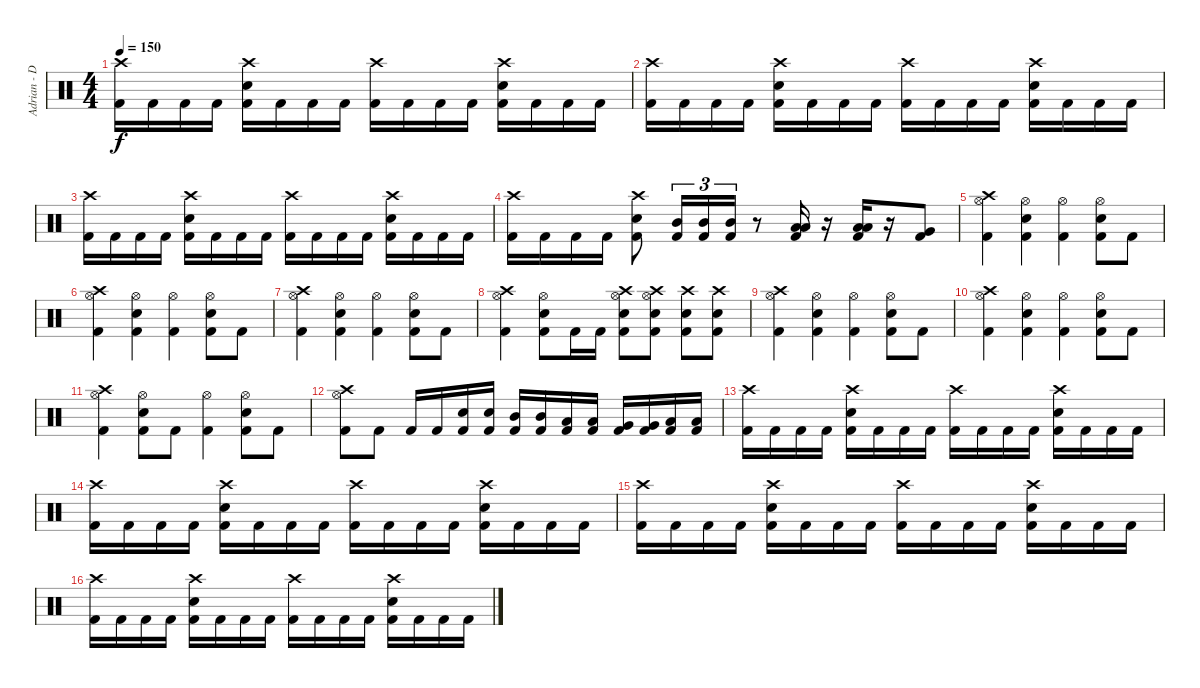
\track ("Adrian - Drums" "Adrian - D") {instrument percussion}
\staff {score}
\articulation defaults
\ts (4 4)
\tempo 150
\clef neutral
\ks c
("Crash high (hit)" "Kick (hit) 2").16{dy f} "Kick (hit) 2".16 "Kick (hit) 2".16 "Kick (hit) 2".16 ("Crash high (hit)" "Electric Snare (hit)" "Kick (hit) 2").16 "Kick (hit) 2".16 "Kick (hit) 2".16 "Kick (hit) 2".16 ("Crash high (hit)" "Kick (hit) 2").16 "Kick (hit) 2".16 "Kick (hit) 2".16 "Kick (hit) 2".16 ("Crash high (hit)" "Electric Snare (hit)" "Kick (hit) 2").16 "Kick (hit) 2".16 "Kick (hit) 2".16 "Kick (hit) 2".16 |
("Crash high (hit)" "Kick (hit) 2").16 "Kick (hit) 2".16 "Kick (hit) 2".16 "Kick (hit) 2".16 ("Crash high (hit)" "Electric Snare (hit)" "Kick (hit) 2").16 "Kick (hit) 2".16 "Kick (hit) 2".16 "Kick (hit) 2".16 ("Crash high (hit)" "Kick (hit) 2").16 "Kick (hit) 2".16 "Kick (hit) 2".16 "Kick (hit) 2".16 ("Crash high (hit)" "Electric Snare (hit)" "Kick (hit) 2").16 "Kick (hit) 2".16 "Kick (hit) 2".16 "Kick (hit) 2".16 |
("Crash high (hit)" "Kick (hit) 2").16 "Kick (hit) 2".16 "Kick (hit) 2".16 "Kick (hit) 2".16 ("Crash high (hit)" "Electric Snare (hit)" "Kick (hit) 2").16 "Kick (hit) 2".16 "Kick (hit) 2".16 "Kick (hit) 2".16 ("Crash high (hit)" "Kick (hit) 2").16 "Kick (hit) 2".16 "Kick (hit) 2".16 "Kick (hit) 2".16 ("Crash high (hit)" "Electric Snare (hit)" "Kick (hit) 2").16 "Kick (hit) 2".16 "Kick (hit) 2".16 "Kick (hit) 2".16 |
("Crash high (hit)" "Kick (hit) 2").16 "Kick (hit) 2".16 "Kick (hit) 2".16 "Kick (hit) 2".16 ("Crash high (hit)" "Electric Snare (hit)" "Kick (hit) 2").8 ("Mid Tom (hit)" "Kick (hit) 2").16{tu (3 2)} ("Mid Tom (hit)" "Kick (hit) 2").16{tu (3 2)} ("Mid Tom (hit)" "Kick (hit) 2").16{tu (3 2)} r.8 ("Low Tom (hit)" "Low Tom (hit)" "Kick (hit) 2").16 r.16 ("Low Tom (hit)" "Low Tom (hit)" "Kick (hit) 2").16 r.16 ("Very Low Tom (hit)" "Kick (hit) 2").8 |
("Crash high (hit)" "Hi-Hat (open)" "Kick (hit) 2").4 ("Hi-Hat (open)" "Electric Snare (hit)" "Kick (hit) 2").4 ("Hi-Hat (open)" "Kick (hit) 2").4 ("Hi-Hat (open)" "Electric Snare (hit)" "Kick (hit) 2").8 "Kick (hit) 2".8 |
("Crash high (hit)" "Hi-Hat (open)" "Kick (hit) 2").4 ("Hi-Hat (open)" "Electric Snare (hit)" "Kick (hit) 2").4 ("Hi-Hat (open)" "Kick (hit) 2").4 ("Hi-Hat (open)" "Electric Snare (hit)" "Kick (hit) 2").8 "Kick (hit) 2".8 |
("Crash high (hit)" "Hi-Hat (open)" "Kick (hit) 2").4 ("Hi-Hat (open)" "Electric Snare (hit)" "Kick (hit) 2").4 ("Hi-Hat (open)" "Kick (hit) 2").4 ("Hi-Hat (open)" "Electric Snare (hit)" "Kick (hit) 2").8 "Kick (hit) 2".8 |
("Crash high (hit)" "Hi-Hat (open)" "Kick (hit) 2").4 ("Hi-Hat (open)" "Electric Snare (hit)" "Kick (hit) 2").8 "Kick (hit) 2".16 "Kick (hit) 2".16 ("Crash high (hit)" "Hi-Hat (open)" "Electric Snare (hit)" "Kick (hit) 2").8 ("Crash high (hit)" "Hi-Hat (open)" "Electric Snare (hit)" "Kick (hit) 2").8 ("Crash high (hit)" "Electric Snare (hit)" "Kick (hit) 2").8 ("Crash high (hit)" "Electric Snare (hit)" "Kick (hit) 2").8 |
("Crash high (hit)" "Hi-Hat (open)" "Kick (hit) 2").4 ("Hi-Hat (open)" "Electric Snare (hit)" "Kick (hit) 2").4 ("Hi-Hat (open)" "Kick (hit) 2").4 ("Hi-Hat (open)" "Electric Snare (hit)" "Kick (hit) 2").8 "Kick (hit) 2".8 |
("Crash high (hit)" "Hi-Hat (open)" "Kick (hit) 2").4 ("Hi-Hat (open)" "Electric Snare (hit)" "Kick (hit) 2").4 ("Hi-Hat (open)" "Kick (hit) 2").4 ("Hi-Hat (open)" "Electric Snare (hit)" "Kick (hit) 2").8 "Kick (hit) 2".8 |
("Crash high (hit)" "Hi-Hat (open)" "Kick (hit) 2").4 ("Hi-Hat (open)" "Electric Snare (hit)" "Kick (hit) 2").8 "Kick (hit) 2".8 ("Hi-Hat (open)" "Kick (hit) 2").4 ("Hi-Hat (open)" "Electric Snare (hit)" "Kick (hit) 2").8 "Kick (hit) 2".8 |
("Crash high (hit)" "Hi-Hat (open)" "Kick (hit) 2").8 "Kick (hit) 2".8 "Kick (hit) 2".16 "Kick (hit) 2".16 ("Electric Snare (hit)" "Kick (hit) 2").16 ("Electric Snare (hit)" "Kick (hit) 2").16 ("Mid Tom (hit)" "Kick (hit) 2").16 ("Mid Tom (hit)" "Kick (hit) 2").16 ("Low Tom (hit)" "Kick (hit) 2").16 ("Low Tom (hit)" "Kick (hit) 2").16 ("Very Low Tom (hit)" "Kick (hit) 2").16 ("Very Low Tom (hit)" "Kick (hit) 2").16 ("Low Floor Tom (hit)" "Kick (hit) 2").16 ("Low Floor Tom (hit)" "Kick (hit) 2").16 |
("Crash high (hit)" "Kick (hit) 2").16 "Kick (hit) 2".16 "Kick (hit) 2".16 "Kick (hit) 2".16 ("Crash high (hit)" "Electric Snare (hit)" "Kick (hit) 2").16 "Kick (hit) 2".16 "Kick (hit) 2".16 "Kick (hit) 2".16 ("Crash high (hit)" "Kick (hit) 2").16 "Kick (hit) 2".16 "Kick (hit) 2".16 "Kick (hit) 2".16 ("Crash high (hit)" "Electric Snare (hit)" "Kick (hit) 2").16 "Kick (hit) 2".16 "Kick (hit) 2".16 "Kick (hit) 2".16 |
("Crash high (hit)" "Kick (hit) 2").16 "Kick (hit) 2".16 "Kick (hit) 2".16 "Kick (hit) 2".16 ("Crash high (hit)" "Electric Snare (hit)" "Kick (hit) 2").16 "Kick (hit) 2".16 "Kick (hit) 2".16 "Kick (hit) 2".16 ("Crash high (hit)" "Kick (hit) 2").16 "Kick (hit) 2".16 "Kick (hit) 2".16 "Kick (hit) 2".16 ("Crash high (hit)" "Electric Snare (hit)" "Kick (hit) 2").16 "Kick (hit) 2".16 "Kick (hit) 2".16 "Kick (hit) 2".16 |
("Crash high (hit)" "Kick (hit) 2").16 "Kick (hit) 2".16 "Kick (hit) 2".16 "Kick (hit) 2".16 ("Crash high (hit)" "Electric Snare (hit)" "Kick (hit) 2").16 "Kick (hit) 2".16 "Kick (hit) 2".16 "Kick (hit) 2".16 ("Crash high (hit)" "Kick (hit) 2").16 "Kick (hit) 2".16 "Kick (hit) 2".16 "Kick (hit) 2".16 ("Crash high (hit)" "Electric Snare (hit)" "Kick (hit) 2").16 "Kick (hit) 2".16 "Kick (hit) 2".16 "Kick (hit) 2".16 |
("Crash high (hit)" "Kick (hit) 2").16 "Kick (hit) 2".16 "Kick (hit) 2".16 "Kick (hit) 2".16 ("Crash high (hit)" "Electric Snare (hit)" "Kick (hit) 2").16 "Kick (hit) 2".16 "Kick (hit) 2".16 "Kick (hit) 2".16 ("Crash high (hit)" "Kick (hit) 2").16 "Kick (hit) 2".16 "Kick (hit) 2".16 "Kick (hit) 2".16 ("Crash high (hit)" "Electric Snare (hit)" "Kick (hit) 2").16 "Kick (hit) 2".16 "Kick (hit) 2".16 "Kick (hit) 2".16
